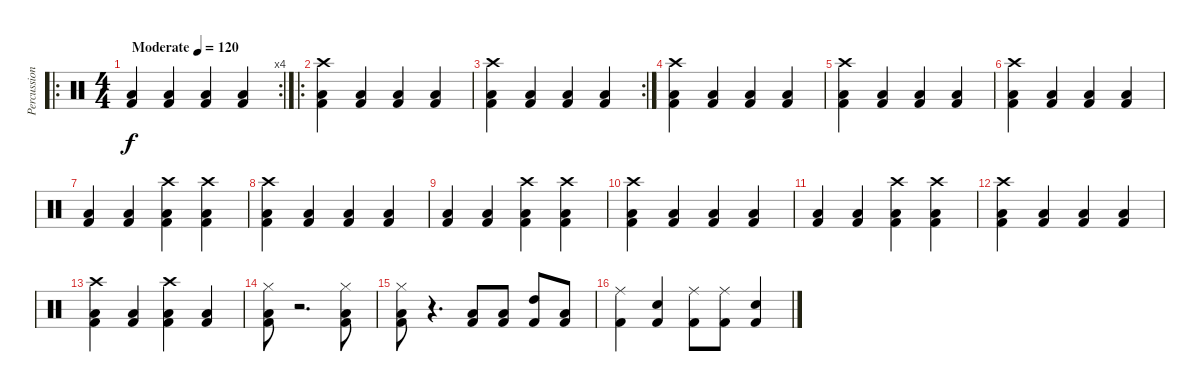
\track ("Percussion" "Percussion") {instrument percussion}
\staff {score}
\articulation defaults
\ro
\rc 4
\ts (4 4)
\tempo (120 "Moderate")
\clef neutral
\ks c
("Kick (hit) 2" "Low Floor Tom (hit)").4{dy f} ("Kick (hit) 2" "Low Floor Tom (hit)").4 ("Kick (hit) 2" "Low Floor Tom (hit)").4 ("Kick (hit) 2" "Low Floor Tom (hit)").4 |
\ro
("Kick (hit) 2" "Low Floor Tom (hit)" "Crash high (hit)").4 ("Kick (hit) 2" "Low Floor Tom (hit)").4 ("Kick (hit) 2" "Low Floor Tom (hit)").4 ("Kick (hit) 2" "Low Floor Tom (hit)").4 |
\rc 2
("Kick (hit) 2" "Low Floor Tom (hit)" "Crash high (hit)").4 ("Kick (hit) 2" "Low Floor Tom (hit)").4 ("Kick (hit) 2" "Low Floor Tom (hit)").4 ("Kick (hit) 2" "Low Floor Tom (hit)").4 |
("Kick (hit) 2" "Low Floor Tom (hit)" "Crash high (hit)").4 ("Kick (hit) 2" "Low Floor Tom (hit)").4 ("Kick (hit) 2" "Low Floor Tom (hit)").4 ("Kick (hit) 2" "Low Floor Tom (hit)").4 |
("Kick (hit) 2" "Low Floor Tom (hit)" "Crash high (hit)").4 ("Kick (hit) 2" "Low Floor Tom (hit)").4 ("Kick (hit) 2" "Low Floor Tom (hit)").4 ("Kick (hit) 2" "Low Floor Tom (hit)").4 |
("Kick (hit) 2" "Low Floor Tom (hit)" "Crash high (hit)").4 ("Kick (hit) 2" "Low Floor Tom (hit)").4 ("Kick (hit) 2" "Low Floor Tom (hit)").4 ("Kick (hit) 2" "Low Floor Tom (hit)").4 |
("Kick (hit) 2" "Low Floor Tom (hit)").4 ("Kick (hit) 2" "Low Floor Tom (hit)").4 ("Kick (hit) 2" "Low Floor Tom (hit)" "Crash high (hit)").4 ("Kick (hit) 2" "Low Floor Tom (hit)" "Crash high (hit)").4 |
("Kick (hit) 2" "Low Floor Tom (hit)" "Crash high (hit)").4 ("Kick (hit) 2" "Low Floor Tom (hit)").4 ("Kick (hit) 2" "Low Floor Tom (hit)").4 ("Kick (hit) 2" "Low Floor Tom (hit)").4 |
("Kick (hit) 2" "Low Floor Tom (hit)").4 ("Kick (hit) 2" "Low Floor Tom (hit)").4 ("Kick (hit) 2" "Low Floor Tom (hit)" "Crash high (hit)").4 ("Kick (hit) 2" "Low Floor Tom (hit)" "Crash high (hit)").4 |
("Kick (hit) 2" "Low Floor Tom (hit)" "Crash high (hit)").4 ("Kick (hit) 2" "Low Floor Tom (hit)").4 ("Kick (hit) 2" "Low Floor Tom (hit)").4 ("Kick (hit) 2" "Low Floor Tom (hit)").4 |
("Kick (hit) 2" "Low Floor Tom (hit)").4 ("Kick (hit) 2" "Low Floor Tom (hit)").4 ("Kick (hit) 2" "Low Floor Tom (hit)" "Crash high (hit)").4 ("Kick (hit) 2" "Low Floor Tom (hit)" "Crash high (hit)").4 |
("Kick (hit) 2" "Low Floor Tom (hit)" "Crash high (hit)").4 ("Kick (hit) 2" "Low Floor Tom (hit)").4 ("Kick (hit) 2" "Low Floor Tom (hit)").4 ("Kick (hit) 2" "Low Floor Tom (hit)").4 |
("Kick (hit) 2" "Low Floor Tom (hit)" "Crash high (hit)").4 ("Kick (hit) 2" "Low Floor Tom (hit)").4 ("Kick (hit) 2" "Low Floor Tom (hit)" "Crash high (hit)").4 ("Kick (hit) 2" "Low Floor Tom (hit)").4 |
("Low Floor Tom (hit)" "Kick (hit) 2" "Hi-Hat (closed)").8 r.2{d} ("Low Floor Tom (hit)" "Kick (hit) 2" "Hi-Hat (closed)").8 |
("Low Floor Tom (hit)" "Kick (hit) 2" "Hi-Hat (closed)").8 r.4{d} ("Low Floor Tom (hit)" "Kick (hit) 2").8 ("Low Floor Tom (hit)" "Kick (hit) 2").8 ("High Tom (hit)" "Kick (hit) 2").8 ("Low Floor Tom (hit)" "Kick (hit) 2").8 |
("Kick (hit) 2" "Ride (middle)").4 ("Kick (hit) 2" "Snare (hit) 2").4 ("Kick (hit) 2" "Ride (middle)").8 ("Kick (hit) 2" "Ride (middle)").8 ("Kick (hit) 2" "Snare (hit) 2").4
